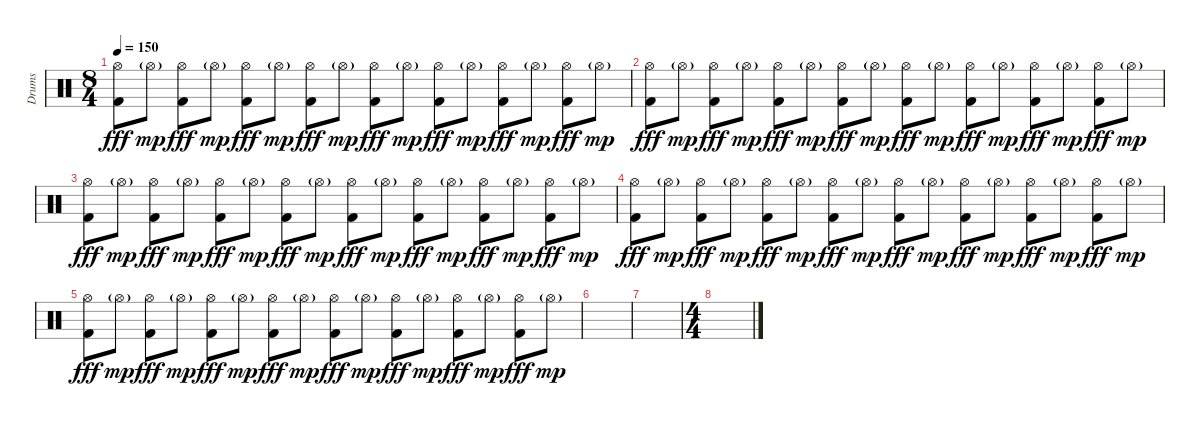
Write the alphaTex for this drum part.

\track ("Drums" "Drums") {instrument percussion}
\staff {score}
\articulation defaults
\ts (8 4)
\tempo 150
\clef neutral
\ks c
("Hi-Hat (open)" "Kick (hit) 2").8{dy fff} "Hi-Hat (open)"{g}.8{dy mp} ("Hi-Hat (open)" "Kick (hit) 2").8{dy fff} "Hi-Hat (open)"{g}.8{dy mp} ("Hi-Hat (open)" "Kick (hit) 2").8{dy fff} "Hi-Hat (open)"{g}.8{dy mp} ("Hi-Hat (open)" "Kick (hit) 2").8{dy fff} "Hi-Hat (open)"{g}.8{dy mp} ("Hi-Hat (open)" "Kick (hit) 2").8{dy fff} "Hi-Hat (open)"{g}.8{dy mp} ("Hi-Hat (open)" "Kick (hit) 2").8{dy fff} "Hi-Hat (open)"{g}.8{dy mp} ("Hi-Hat (open)" "Kick (hit) 2").8{dy fff} "Hi-Hat (open)"{g}.8{dy mp} ("Hi-Hat (open)" "Kick (hit) 2").8{dy fff} "Hi-Hat (open)"{g}.8{dy mp} |
("Hi-Hat (open)" "Kick (hit) 2").8{dy fff volume 5} "Hi-Hat (open)"{g}.8{dy mp} ("Hi-Hat (open)" "Kick (hit) 2").8{dy fff} "Hi-Hat (open)"{g}.8{dy mp} ("Hi-Hat (open)" "Kick (hit) 2").8{dy fff} "Hi-Hat (open)"{g}.8{dy mp} ("Hi-Hat (open)" "Kick (hit) 2").8{dy fff} "Hi-Hat (open)"{g}.8{dy mp} ("Hi-Hat (open)" "Kick (hit) 2").8{dy fff} "Hi-Hat (open)"{g}.8{dy mp} ("Hi-Hat (open)" "Kick (hit) 2").8{dy fff} "Hi-Hat (open)"{g}.8{dy mp} ("Hi-Hat (open)" "Kick (hit) 2").8{dy fff} "Hi-Hat (open)"{g}.8{dy mp} ("Hi-Hat (open)" "Kick (hit) 2").8{dy fff} "Hi-Hat (open)"{g}.8{dy mp} |
("Hi-Hat (open)" "Kick (hit) 2").8{dy fff} "Hi-Hat (open)"{g}.8{dy mp} ("Hi-Hat (open)" "Kick (hit) 2").8{dy fff} "Hi-Hat (open)"{g}.8{dy mp} ("Hi-Hat (open)" "Kick (hit) 2").8{dy fff} "Hi-Hat (open)"{g}.8{dy mp} ("Hi-Hat (open)" "Kick (hit) 2").8{dy fff} "Hi-Hat (open)"{g}.8{dy mp} ("Hi-Hat (open)" "Kick (hit) 2").8{dy fff} "Hi-Hat (open)"{g}.8{dy mp} ("Hi-Hat (open)" "Kick (hit) 2").8{dy fff} "Hi-Hat (open)"{g}.8{dy mp} ("Hi-Hat (open)" "Kick (hit) 2").8{dy fff} "Hi-Hat (open)"{g}.8{dy mp} ("Hi-Hat (open)" "Kick (hit) 2").8{dy fff} "Hi-Hat (open)"{g}.8{dy mp} |
("Hi-Hat (open)" "Kick (hit) 2").8{dy fff volume 3} "Hi-Hat (open)"{g}.8{dy mp} ("Hi-Hat (open)" "Kick (hit) 2").8{dy fff} "Hi-Hat (open)"{g}.8{dy mp} ("Hi-Hat (open)" "Kick (hit) 2").8{dy fff} "Hi-Hat (open)"{g}.8{dy mp} ("Hi-Hat (open)" "Kick (hit) 2").8{dy fff} "Hi-Hat (open)"{g}.8{dy mp} ("Hi-Hat (open)" "Kick (hit) 2").8{dy fff} "Hi-Hat (open)"{g}.8{dy mp} ("Hi-Hat (open)" "Kick (hit) 2").8{dy fff} "Hi-Hat (open)"{g}.8{dy mp} ("Hi-Hat (open)" "Kick (hit) 2").8{dy fff} "Hi-Hat (open)"{g}.8{dy mp} ("Hi-Hat (open)" "Kick (hit) 2").8{dy fff} "Hi-Hat (open)"{g}.8{dy mp} |
("Hi-Hat (open)" "Kick (hit) 2").8{dy fff} "Hi-Hat (open)"{g}.8{dy mp} ("Hi-Hat (open)" "Kick (hit) 2").8{dy fff} "Hi-Hat (open)"{g}.8{dy mp} ("Hi-Hat (open)" "Kick (hit) 2").8{dy fff} "Hi-Hat (open)"{g}.8{dy mp} ("Hi-Hat (open)" "Kick (hit) 2").8{dy fff} "Hi-Hat (open)"{g}.8{dy mp} ("Hi-Hat (open)" "Kick (hit) 2").8{dy fff} "Hi-Hat (open)"{g}.8{dy mp} ("Hi-Hat (open)" "Kick (hit) 2").8{dy fff} "Hi-Hat (open)"{g}.8{dy mp} ("Hi-Hat (open)" "Kick (hit) 2").8{dy fff} "Hi-Hat (open)"{g}.8{dy mp} ("Hi-Hat (open)" "Kick (hit) 2").8{dy fff} "Hi-Hat (open)"{g}.8{dy mp} |
|
|
\ts (4 4)
